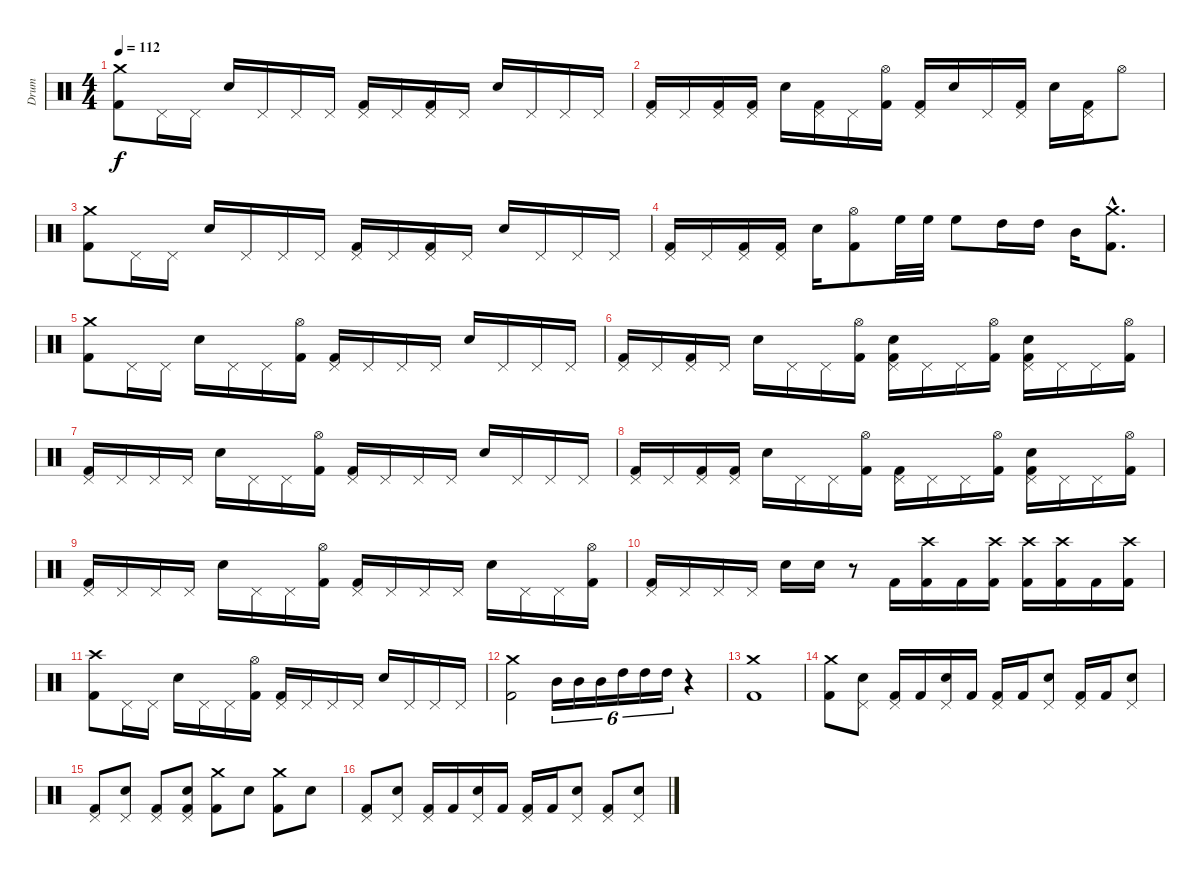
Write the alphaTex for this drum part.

\track ("Drum" "Drum") {instrument percussion}
\staff {score}
\articulation defaults
\ts (4 4)
\tempo 112
\clef neutral
\ks c
("Crash medium (hit)" "Kick (hit) 2").8{dy f} "Pedal Hi-Hat (hit)".16 "Pedal Hi-Hat (hit)".16 "Electric Snare (hit)".16 "Pedal Hi-Hat (hit)".16 "Pedal Hi-Hat (hit)".16 "Pedal Hi-Hat (hit)".16 ("Pedal Hi-Hat (hit)" "Kick (hit) 2").16 "Pedal Hi-Hat (hit)".16 ("Pedal Hi-Hat (hit)" "Kick (hit) 2").16 "Pedal Hi-Hat (hit)".16 "Electric Snare (hit)".16 "Pedal Hi-Hat (hit)".16 "Pedal Hi-Hat (hit)".16 "Pedal Hi-Hat (hit)".16 |
("Pedal Hi-Hat (hit)" "Kick (hit) 2").16 "Pedal Hi-Hat (hit)".16 ("Pedal Hi-Hat (hit)" "Kick (hit) 2").16 ("Pedal Hi-Hat (hit)" "Kick (hit) 2").16 "Electric Snare (hit)".16 ("Pedal Hi-Hat (hit)" "Kick (hit) 2").16 "Pedal Hi-Hat (hit)".16 ("Hi-Hat (open)" "Kick (hit) 2").16 ("Pedal Hi-Hat (hit)" "Kick (hit) 2").16 "Electric Snare (hit)".16 "Pedal Hi-Hat (hit)".16 ("Pedal Hi-Hat (hit)" "Kick (hit) 2").16 "Electric Snare (hit)".16 ("Pedal Hi-Hat (hit)" "Kick (hit) 2").16 "Hi-Hat (open)".8 |
("Crash medium (hit)" "Kick (hit) 2").8 "Pedal Hi-Hat (hit)".16 "Pedal Hi-Hat (hit)".16 "Electric Snare (hit)".16 "Pedal Hi-Hat (hit)".16 "Pedal Hi-Hat (hit)".16 "Pedal Hi-Hat (hit)".16 ("Pedal Hi-Hat (hit)" "Kick (hit) 2").16 "Pedal Hi-Hat (hit)".16 ("Pedal Hi-Hat (hit)" "Kick (hit) 2").16 "Pedal Hi-Hat (hit)".16 "Electric Snare (hit)".16 "Pedal Hi-Hat (hit)".16 "Pedal Hi-Hat (hit)".16 "Pedal Hi-Hat (hit)".16 |
("Pedal Hi-Hat (hit)" "Kick (hit) 2").16 "Pedal Hi-Hat (hit)".16 ("Pedal Hi-Hat (hit)" "Kick (hit) 2").16 ("Pedal Hi-Hat (hit)" "Kick (hit) 2").16 "Electric Snare (hit)".16 ("Hi-Hat (open)" "Kick (hit) 2").8 "High Floor Tom (hit)".32 "High Floor Tom (hit)".32 "High Floor Tom (hit)".8 "High Tom (hit)".16 "High Tom (hit)".16 "Mid Tom (hit)".16 ("Crash medium (hit)"{hac} "Kick (hit) 2"{hac}).8{d} |
("Crash medium (hit)" "Kick (hit) 2").8 "Pedal Hi-Hat (hit)".16 "Pedal Hi-Hat (hit)".16 "Electric Snare (hit)".16 "Pedal Hi-Hat (hit)".16 "Pedal Hi-Hat (hit)".16 ("Hi-Hat (open)" "Kick (hit) 2").16 ("Pedal Hi-Hat (hit)" "Kick (hit) 2").16 "Pedal Hi-Hat (hit)".16 "Pedal Hi-Hat (hit)".16 "Pedal Hi-Hat (hit)".16 "Electric Snare (hit)".16 "Pedal Hi-Hat (hit)".16 "Pedal Hi-Hat (hit)".16 "Pedal Hi-Hat (hit)".16 |
("Pedal Hi-Hat (hit)" "Kick (hit) 2").16 "Pedal Hi-Hat (hit)".16 ("Pedal Hi-Hat (hit)" "Kick (hit) 2").16 "Pedal Hi-Hat (hit)".16 "Electric Snare (hit)".16 "Pedal Hi-Hat (hit)".16 "Pedal Hi-Hat (hit)".16 ("Hi-Hat (open)" "Kick (hit) 2").16 ("Pedal Hi-Hat (hit)" "Electric Snare (hit)" "Kick (hit) 2").16 "Pedal Hi-Hat (hit)".16 "Pedal Hi-Hat (hit)".16 ("Hi-Hat (open)" "Kick (hit) 2").16 ("Pedal Hi-Hat (hit)" "Electric Snare (hit)" "Kick (hit) 2").16 "Pedal Hi-Hat (hit)".16 "Pedal Hi-Hat (hit)".16 ("Hi-Hat (open)" "Kick (hit) 2").16 |
("Pedal Hi-Hat (hit)" "Kick (hit) 2").16 "Pedal Hi-Hat (hit)".16 "Pedal Hi-Hat (hit)".16 "Pedal Hi-Hat (hit)".16 "Electric Snare (hit)".16 "Pedal Hi-Hat (hit)".16 "Pedal Hi-Hat (hit)".16 ("Hi-Hat (open)" "Kick (hit) 2").16 ("Pedal Hi-Hat (hit)" "Kick (hit) 2").16 "Pedal Hi-Hat (hit)".16 "Pedal Hi-Hat (hit)".16 "Pedal Hi-Hat (hit)".16 "Electric Snare (hit)".16 "Pedal Hi-Hat (hit)".16 "Pedal Hi-Hat (hit)".16 "Pedal Hi-Hat (hit)".16 |
("Pedal Hi-Hat (hit)" "Kick (hit) 2").16 "Pedal Hi-Hat (hit)".16 ("Pedal Hi-Hat (hit)" "Kick (hit) 2").16 ("Pedal Hi-Hat (hit)" "Kick (hit) 2").16 "Electric Snare (hit)".16 "Pedal Hi-Hat (hit)".16 "Pedal Hi-Hat (hit)".16 ("Hi-Hat (open)" "Kick (hit) 2").16 ("Pedal Hi-Hat (hit)" "Kick (hit) 2").16 "Pedal Hi-Hat (hit)".16 "Pedal Hi-Hat (hit)".16 ("Hi-Hat (open)" "Kick (hit) 2").16 ("Pedal Hi-Hat (hit)" "Electric Snare (hit)" "Kick (hit) 2").16 "Pedal Hi-Hat (hit)".16 "Pedal Hi-Hat (hit)".16 ("Hi-Hat (open)" "Kick (hit) 2").16 |
("Pedal Hi-Hat (hit)" "Kick (hit) 2").16 "Pedal Hi-Hat (hit)".16 "Pedal Hi-Hat (hit)".16 "Pedal Hi-Hat (hit)".16 "Electric Snare (hit)".16 "Pedal Hi-Hat (hit)".16 "Pedal Hi-Hat (hit)".16 ("Hi-Hat (open)" "Kick (hit) 2").16 ("Pedal Hi-Hat (hit)" "Kick (hit) 2").16 "Pedal Hi-Hat (hit)".16 "Pedal Hi-Hat (hit)".16 "Pedal Hi-Hat (hit)".16 "Electric Snare (hit)".16 "Pedal Hi-Hat (hit)".16 "Pedal Hi-Hat (hit)".16 ("Hi-Hat (open)" "Kick (hit) 2").16 |
("Pedal Hi-Hat (hit)" "Kick (hit) 2").16 "Pedal Hi-Hat (hit)".16 "Pedal Hi-Hat (hit)".16 "Pedal Hi-Hat (hit)".16 "Electric Snare (hit)".16 "Electric Snare (hit)".16 r.8 "Kick (hit) 2".16 ("Crash high (hit)" "Kick (hit) 2").16 "Kick (hit) 2".16 ("Crash high (hit)" "Kick (hit) 2").16 ("Crash high (hit)" "Kick (hit) 2").16 ("Crash high (hit)" "Kick (hit) 2").16 "Kick (hit) 2".16 ("Crash high (hit)" "Kick (hit) 2").16 |
("Crash high (hit)" "Kick (hit) 2").8 "Pedal Hi-Hat (hit)".16 "Pedal Hi-Hat (hit)".16 "Electric Snare (hit)".16 "Pedal Hi-Hat (hit)".16 "Pedal Hi-Hat (hit)".16 ("Hi-Hat (open)" "Kick (hit) 2").16 ("Pedal Hi-Hat (hit)" "Kick (hit) 2").16 "Pedal Hi-Hat (hit)".16 "Pedal Hi-Hat (hit)".16 "Pedal Hi-Hat (hit)".16 "Electric Snare (hit)".16 "Pedal Hi-Hat (hit)".16 "Pedal Hi-Hat (hit)".16 "Pedal Hi-Hat (hit)".16 |
("Crash medium (hit)" "Kick (hit) 2").2 "Mid Tom (hit)".16{tu (6 4)} "Mid Tom (hit)".16{tu (6 4)} "Mid Tom (hit)".16{tu (6 4)} "High Tom (hit)".16{tu (6 4)} "High Tom (hit)".16{tu (6 4)} "High Tom (hit)".16{tu (6 4)} r.4 |
("Crash medium (hit)" "Kick (hit) 2").1 |
("Crash medium (hit)" "Kick (hit) 2").8 ("Pedal Hi-Hat (hit)" "Electric Snare (hit)").8 ("Pedal Hi-Hat (hit)" "Kick (hit) 2").16 "Kick (hit) 2".16 ("Pedal Hi-Hat (hit)" "Electric Snare (hit)").16 "Kick (hit) 2".16 ("Pedal Hi-Hat (hit)" "Kick (hit) 2").16 "Kick (hit) 2".16 ("Pedal Hi-Hat (hit)" "Electric Snare (hit)").8 ("Pedal Hi-Hat (hit)" "Kick (hit) 2").16 "Kick (hit) 2".16 ("Pedal Hi-Hat (hit)" "Electric Snare (hit)").8 |
("Pedal Hi-Hat (hit)" "Kick (hit) 2").8 ("Pedal Hi-Hat (hit)" "Electric Snare (hit)").8 ("Pedal Hi-Hat (hit)" "Kick (hit) 2").8 ("Pedal Hi-Hat (hit)" "Electric Snare (hit)" "Kick (hit) 2").8 ("Crash medium (hit)" "Kick (hit) 2").8 "Electric Snare (hit)".8 ("Crash medium (hit)" "Kick (hit) 2").8 "Electric Snare (hit)".8 |
("Pedal Hi-Hat (hit)" "Kick (hit) 2").8 ("Pedal Hi-Hat (hit)" "Electric Snare (hit)").8 ("Pedal Hi-Hat (hit)" "Kick (hit) 2").16 "Kick (hit) 2".16 ("Pedal Hi-Hat (hit)" "Electric Snare (hit)").16 "Kick (hit) 2".16 ("Pedal Hi-Hat (hit)" "Kick (hit) 2").16 "Kick (hit) 2".16 ("Pedal Hi-Hat (hit)" "Electric Snare (hit)").8 ("Pedal Hi-Hat (hit)" "Kick (hit) 2").8 ("Pedal Hi-Hat (hit)" "Electric Snare (hit)").8
